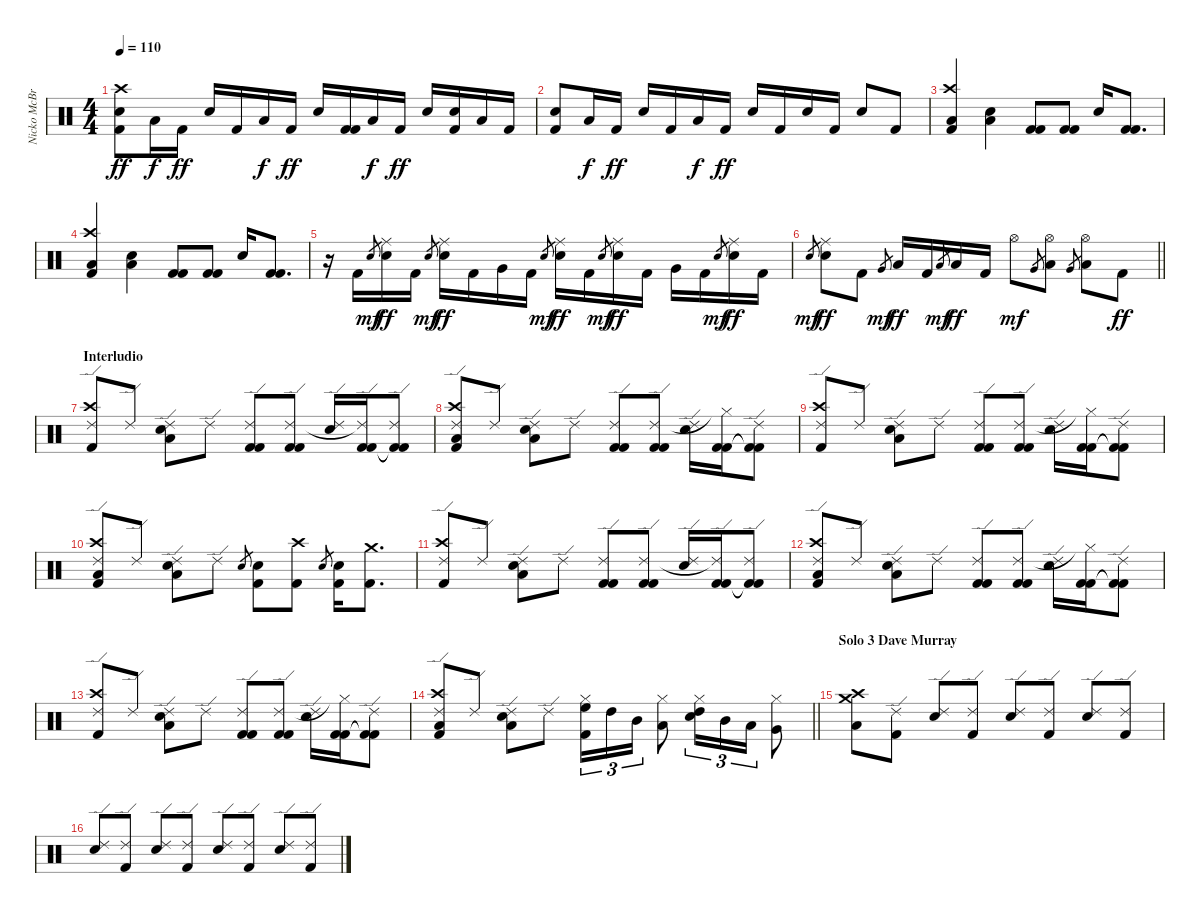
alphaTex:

\track ("Nicko McBrain" "Nicko McBr") {instrument percussion}
\staff {score}
\articulation defaults
\ts (4 4)
\tempo 110
\clef neutral
\ks c
("Snare (hit) 2" "Kick (hit) 2" "Crash high (hit)").8{dy ff} "Low Floor Tom (hit)".16{dy f} "Kick (hit) 2".16{dy ff} "Snare (hit) 2".16 "Kick (hit) 2".16 "Low Floor Tom (hit)".16{dy f} "Kick (hit) 2".16{dy ff} "Snare (hit) 2".16 ("Kick (hit) 2" "Kick (hit) 2").16 "Low Floor Tom (hit)".16{dy f} "Kick (hit) 2".16{dy ff} "Snare (hit) 2".16 ("Snare (hit) 2" "Kick (hit) 2").16 "Low Floor Tom (hit)".16 "Kick (hit) 2".16 |
("Snare (hit) 2" "Kick (hit) 2").8 "Low Floor Tom (hit)".16{dy f} "Kick (hit) 2".16{dy ff} "Snare (hit) 2".16 "Kick (hit) 2".16 "Low Floor Tom (hit)".16{dy f} "Kick (hit) 2".16{dy ff} "Snare (hit) 2".16 "Kick (hit) 2".16 "Snare (hit) 2".16 "Kick (hit) 2".16 "Snare (hit) 2".8 "Kick (hit) 2".8 |
("Crash high (hit)" "Low Floor Tom (hit)" "Kick (hit) 2").4 ("Snare (hit) 2" "Low Floor Tom (hit)").4 ("Kick (hit) 2" "Kick (hit) 2").8 ("Kick (hit) 2" "Kick (hit) 2").8 "Snare (hit) 2".16 ("Kick (hit) 2" "Kick (hit) 2").8{d} |
("Crash high (hit)" "Low Floor Tom (hit)" "Kick (hit) 2").4 ("Snare (hit) 2" "Low Floor Tom (hit)").4 ("Kick (hit) 2" "Kick (hit) 2").8 ("Kick (hit) 2" "Kick (hit) 2").8 "Snare (hit) 2".16 ("Kick (hit) 2" "Kick (hit) 2").8{d} |
r.16 "Kick (hit) 2".16 "Snare (hit) 2".8{gr dy mf} ("Snare (hit) 2" "Ride (middle)").16{dy ff} "Kick (hit) 2".16 "Snare (hit) 2".8{gr dy mf} ("Snare (hit) 2" "Ride (middle)").16{dy ff} "Kick (hit) 2".16 "Very Low Tom (hit)".16 "Kick (hit) 2".16 "Snare (hit) 2".8{gr dy mf} ("Snare (hit) 2" "Ride (middle)").16{dy ff} "Kick (hit) 2".16 "Snare (hit) 2".8{gr dy mf} ("Snare (hit) 2" "Ride (middle)").16{dy ff} "Kick (hit) 2".16 "Very Low Tom (hit)".16 "Kick (hit) 2".16 "Snare (hit) 2".8{gr dy mf} ("Snare (hit) 2" "Ride (middle)").16{dy ff} "Kick (hit) 2".16 |
\barLineRight lightlight "Snare (hit) 2".8{gr dy mf}
("Snare (hit) 2" "Ride (middle)").8{dy ff} "Kick (hit) 2".8 "Very Low Tom (hit)".8{gr dy mf} "Low Floor Tom (hit)".16{dy ff} "Kick (hit) 2".16 "Low Floor Tom (hit)".8{gr dy mf} "Low Floor Tom (hit)".16{dy ff} "Kick (hit) 2".16 "Hi-Hat (open)".8{dy mf} "Very Low Tom (hit)".8{gr} ("Hi-Hat (open)" "Low Tom (hit)").8 "Very Low Tom (hit)".8{gr} ("Hi-Hat (open)" "Low Tom (hit)").8 "Kick (hit) 2".8{dy ff} |
\section ("" "Interludio")
("Crash high (hit)" "Kick (hit) 2" "Ride (edge) 2").8 "Ride (edge) 2".8 ("Snare (hit) 2" "Low Floor Tom (hit)" "Ride (edge) 2").8 "Ride (edge) 2".8 ("Kick (hit) 2" "Kick (hit) 2" "Ride (edge) 2").8 ("Kick (hit) 2" "Kick (hit) 2" "Ride (edge) 2").8 ("Snare (hit) 2" "Ride (edge) 2").16 ("Kick (hit) 2" "Kick (hit) 2" "Ride (edge) 2"{t}).16 ("Kick (hit) 2"{t} "Kick (hit) 2"{t} "Ride (edge) 2").8 |
("Crash high (hit)" "Low Floor Tom (hit)" "Kick (hit) 2" "Ride (edge) 2").8 "Ride (edge) 2".8 ("Snare (hit) 2" "Low Floor Tom (hit)" "Ride (edge) 2").8 "Ride (edge) 2".8 ("Kick (hit) 2" "Kick (hit) 2" "Ride (edge) 2").8 ("Kick (hit) 2" "Kick (hit) 2" "Ride (edge) 2").8 ("Snare (hit) 2" "Ride (edge) 2").16 ("Kick (hit) 2" "Kick (hit) 2" "Hi-Hat (closed)"{t}).16 ("Kick (hit) 2"{t} "Kick (hit) 2"{t} "Ride (edge) 2").8 |
("Crash high (hit)" "Kick (hit) 2" "Ride (edge) 2").8 "Ride (edge) 2".8 ("Snare (hit) 2" "Low Floor Tom (hit)" "Ride (edge) 2").8 "Ride (edge) 2".8 ("Kick (hit) 2" "Kick (hit) 2" "Ride (edge) 2").8 ("Kick (hit) 2" "Kick (hit) 2" "Ride (edge) 2").8 ("Snare (hit) 2" "Ride (edge) 2").16 ("Kick (hit) 2" "Kick (hit) 2" "Hi-Hat (closed)"{t}).16 ("Kick (hit) 2"{t} "Kick (hit) 2"{t} "Ride (edge) 2").8 |
("Crash high (hit)" "Low Floor Tom (hit)" "Kick (hit) 2" "Ride (edge) 2").8 "Ride (edge) 2".8 ("Snare (hit) 2" "Low Floor Tom (hit)" "Ride (edge) 2").8 "Ride (edge) 2".8 "Snare (hit) 2".8{gr} ("Snare (hit) 2" "Kick (hit) 2").8 ("Crash high (hit)" "Kick (hit) 2").8 "Snare (hit) 2".8{gr} ("Snare (hit) 2" "Kick (hit) 2").16 ("Crash medium (hit)" "Kick (hit) 2").8{d} |
("Crash high (hit)" "Kick (hit) 2" "Ride (edge) 2").8 "Ride (edge) 2".8 ("Snare (hit) 2" "Low Floor Tom (hit)" "Ride (edge) 2").8 "Ride (edge) 2".8 ("Kick (hit) 2" "Kick (hit) 2" "Ride (edge) 2").8 ("Kick (hit) 2" "Kick (hit) 2" "Ride (edge) 2").8 ("Snare (hit) 2" "Ride (edge) 2").16 ("Kick (hit) 2" "Kick (hit) 2" "Ride (edge) 2"{t}).16 ("Kick (hit) 2"{t} "Kick (hit) 2"{t} "Ride (edge) 2").8 |
("Crash high (hit)" "Low Floor Tom (hit)" "Kick (hit) 2" "Ride (edge) 2").8 "Ride (edge) 2".8 ("Snare (hit) 2" "Low Floor Tom (hit)" "Ride (edge) 2").8 "Ride (edge) 2".8 ("Kick (hit) 2" "Kick (hit) 2" "Ride (edge) 2").8 ("Kick (hit) 2" "Kick (hit) 2" "Ride (edge) 2").8 ("Snare (hit) 2" "Ride (edge) 2").16 ("Kick (hit) 2" "Kick (hit) 2" "Hi-Hat (closed)"{t}).16 ("Kick (hit) 2"{t} "Kick (hit) 2"{t} "Ride (edge) 2").8 |
("Crash high (hit)" "Kick (hit) 2" "Ride (edge) 2").8 "Ride (edge) 2".8 ("Snare (hit) 2" "Low Floor Tom (hit)" "Ride (edge) 2").8 "Ride (edge) 2".8 ("Kick (hit) 2" "Kick (hit) 2" "Ride (edge) 2").8 ("Kick (hit) 2" "Kick (hit) 2" "Ride (edge) 2").8 ("Snare (hit) 2" "Ride (edge) 2").16 ("Kick (hit) 2" "Kick (hit) 2" "Hi-Hat (closed)"{t}).16 ("Kick (hit) 2"{t} "Kick (hit) 2"{t} "Ride (edge) 2").8 |
\barLineRight lightlight
("Crash high (hit)" "Low Floor Tom (hit)" "Kick (hit) 2" "Ride (edge) 2").8 "Ride (edge) 2".8 ("Snare (hit) 2" "Low Floor Tom (hit)" "Ride (edge) 2").8 "Ride (edge) 2".8 ("Kick (hit) 2" "Hi-Hat (closed)" "High Floor Tom (hit)").16{tu (3 2)} "High Tom (hit)".16{tu (3 2)} "Mid Tom (hit)".16{tu (3 2)} ("Hi-Hat (closed)" "Low Tom (hit)").8 ("Snare (hit) 2" "Hi-Hat (closed)" "High Tom (hit)").16{tu (3 2)} "Mid Tom (hit)".16{tu (3 2)} "Low Tom (hit)".16{tu (3 2)} ("Hi-Hat (closed)" "Very Low Tom (hit)").8 |
\section ("" "Solo 3 Dave Murray")
("Low Floor Tom (hit)" "Crash high (hit)" "Crash medium (hit)").8 ("Kick (hit) 2" "Ride (edge) 2").8 ("Snare (hit) 2" "Ride (edge) 2").8 ("Kick (hit) 2" "Ride (edge) 2").8 ("Snare (hit) 2" "Ride (edge) 2").8 ("Kick (hit) 2" "Ride (edge) 2").8 ("Snare (hit) 2" "Ride (edge) 2").8 ("Kick (hit) 2" "Ride (edge) 2").8 |
("Snare (hit) 2" "Ride (edge) 2").8 ("Kick (hit) 2" "Ride (edge) 2").8 ("Snare (hit) 2" "Ride (edge) 2").8 ("Kick (hit) 2" "Ride (edge) 2").8 ("Snare (hit) 2" "Ride (edge) 2").8 ("Kick (hit) 2" "Ride (edge) 2").8 ("Snare (hit) 2" "Ride (edge) 2").8 ("Kick (hit) 2" "Ride (edge) 2").8
